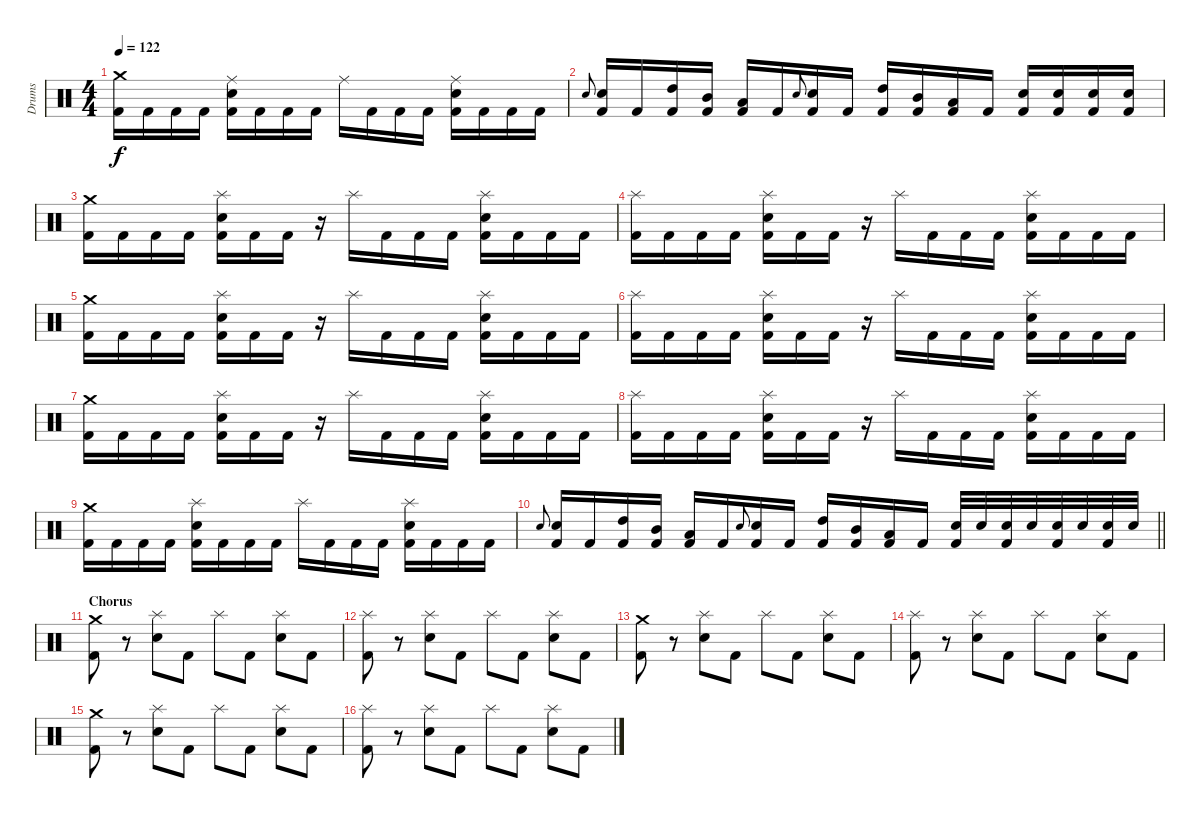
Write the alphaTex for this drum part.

\track ("Drums" "Drums") {instrument percussion}
\staff {score}
\articulation defaults
\ts (4 4)
\tempo 122
\clef neutral
\ks c
("Kick (hit) 2" "Crash medium (hit)").16{dy f} "Kick (hit) 2".16 "Kick (hit) 2".16 "Kick (hit) 2".16 ("Kick (hit) 2" "Snare (hit) 2" "Ride (middle)").16 "Kick (hit) 2".16 "Kick (hit) 2".16 "Kick (hit) 2".16 "Ride (middle)".16 "Kick (hit) 2".16 "Kick (hit) 2".16 "Kick (hit) 2".16 ("Kick (hit) 2" "Snare (hit) 2" "Ride (middle)").16 "Kick (hit) 2".16 "Kick (hit) 2".16 "Kick (hit) 2".16 |
"Snare (hit) 2".8{gr onbeat} ("Snare (hit) 2" "Kick (hit) 2").16 "Kick (hit) 2".16 ("Kick (hit) 2" "High Tom (hit)").16 ("Kick (hit) 2" "Mid Tom (hit)").16 ("Kick (hit) 2" "Low Tom (hit)").16 "Kick (hit) 2".16 "Snare (hit) 2".8{gr onbeat} ("Snare (hit) 2" "Kick (hit) 2").16 "Kick (hit) 2".16 ("Kick (hit) 2" "High Tom (hit)").16 ("Kick (hit) 2" "Mid Tom (hit)").16 ("Kick (hit) 2" "Low Tom (hit)").16 "Kick (hit) 2".16 ("Snare (hit) 2" "Kick (hit) 2").16 ("Snare (hit) 2" "Kick (hit) 2").16 ("Snare (hit) 2" "Kick (hit) 2").16 ("Snare (hit) 2" "Kick (hit) 2").16 |
("Kick (hit) 2" "Crash medium (hit)").16 "Kick (hit) 2".16 "Kick (hit) 2".16 "Kick (hit) 2".16 ("Kick (hit) 2" "Snare (hit) 2" "Splash (hit)").16 "Kick (hit) 2".16 "Kick (hit) 2".16 r.16 "Splash (hit)".16 "Kick (hit) 2".16 "Kick (hit) 2".16 "Kick (hit) 2".16 ("Kick (hit) 2" "Snare (hit) 2" "Splash (hit)").16 "Kick (hit) 2".16 "Kick (hit) 2".16 "Kick (hit) 2".16 |
("Kick (hit) 2" "Splash (hit)").16 "Kick (hit) 2".16 "Kick (hit) 2".16 "Kick (hit) 2".16 ("Kick (hit) 2" "Snare (hit) 2" "Splash (hit)").16 "Kick (hit) 2".16 "Kick (hit) 2".16 r.16 "Splash (hit)".16 "Kick (hit) 2".16 "Kick (hit) 2".16 "Kick (hit) 2".16 ("Kick (hit) 2" "Snare (hit) 2" "Splash (hit)").16 "Kick (hit) 2".16 "Kick (hit) 2".16 "Kick (hit) 2".16 |
("Kick (hit) 2" "Crash medium (hit)").16 "Kick (hit) 2".16 "Kick (hit) 2".16 "Kick (hit) 2".16 ("Kick (hit) 2" "Snare (hit) 2" "Splash (hit)").16 "Kick (hit) 2".16 "Kick (hit) 2".16 r.16 "Splash (hit)".16 "Kick (hit) 2".16 "Kick (hit) 2".16 "Kick (hit) 2".16 ("Kick (hit) 2" "Snare (hit) 2" "Splash (hit)").16 "Kick (hit) 2".16 "Kick (hit) 2".16 "Kick (hit) 2".16 |
("Kick (hit) 2" "Splash (hit)").16 "Kick (hit) 2".16 "Kick (hit) 2".16 "Kick (hit) 2".16 ("Kick (hit) 2" "Snare (hit) 2" "Splash (hit)").16 "Kick (hit) 2".16 "Kick (hit) 2".16 r.16 "Splash (hit)".16 "Kick (hit) 2".16 "Kick (hit) 2".16 "Kick (hit) 2".16 ("Kick (hit) 2" "Snare (hit) 2" "Splash (hit)").16 "Kick (hit) 2".16 "Kick (hit) 2".16 "Kick (hit) 2".16 |
("Kick (hit) 2" "Crash medium (hit)").16 "Kick (hit) 2".16 "Kick (hit) 2".16 "Kick (hit) 2".16 ("Kick (hit) 2" "Snare (hit) 2" "Splash (hit)").16 "Kick (hit) 2".16 "Kick (hit) 2".16 r.16 "Splash (hit)".16 "Kick (hit) 2".16 "Kick (hit) 2".16 "Kick (hit) 2".16 ("Kick (hit) 2" "Snare (hit) 2" "Splash (hit)").16 "Kick (hit) 2".16 "Kick (hit) 2".16 "Kick (hit) 2".16 |
("Kick (hit) 2" "Splash (hit)").16 "Kick (hit) 2".16 "Kick (hit) 2".16 "Kick (hit) 2".16 ("Kick (hit) 2" "Snare (hit) 2" "Splash (hit)").16 "Kick (hit) 2".16 "Kick (hit) 2".16 r.16 "Splash (hit)".16 "Kick (hit) 2".16 "Kick (hit) 2".16 "Kick (hit) 2".16 ("Kick (hit) 2" "Snare (hit) 2" "Splash (hit)").16 "Kick (hit) 2".16 "Kick (hit) 2".16 "Kick (hit) 2".16 |
("Kick (hit) 2" "Crash medium (hit)").16 "Kick (hit) 2".16 "Kick (hit) 2".16 "Kick (hit) 2".16 ("Kick (hit) 2" "Snare (hit) 2" "Splash (hit)").16 "Kick (hit) 2".16 "Kick (hit) 2".16 "Kick (hit) 2".16 "Splash (hit)".16 "Kick (hit) 2".16 "Kick (hit) 2".16 "Kick (hit) 2".16 ("Kick (hit) 2" "Snare (hit) 2" "Splash (hit)").16 "Kick (hit) 2".16 "Kick (hit) 2".16 "Kick (hit) 2".16 |
\barLineRight lightlight "Snare (hit) 2".8{gr onbeat}
("Snare (hit) 2" "Kick (hit) 2").16 "Kick (hit) 2".16 ("Kick (hit) 2" "High Tom (hit)").16 ("Kick (hit) 2" "Mid Tom (hit)").16 ("Kick (hit) 2" "Low Tom (hit)").16 "Kick (hit) 2".16 "Snare (hit) 2".8{gr onbeat} ("Snare (hit) 2" "Kick (hit) 2").16 "Kick (hit) 2".16 ("Kick (hit) 2" "High Tom (hit)").16 ("Kick (hit) 2" "Mid Tom (hit)").16 ("Kick (hit) 2" "Low Tom (hit)").16 "Kick (hit) 2".16 ("Snare (hit) 2" "Kick (hit) 2").32 "Snare (hit) 2".32 ("Snare (hit) 2" "Kick (hit) 2").32 "Snare (hit) 2".32 ("Snare (hit) 2" "Kick (hit) 2").32 "Snare (hit) 2".32 ("Snare (hit) 2" "Kick (hit) 2").32 "Snare (hit) 2".32 |
\section ("" "Chorus")
("Kick (hit) 2" "Crash medium (hit)").8 r.8 ("Snare (hit) 2" "Splash (hit)").8 "Kick (hit) 2".8 "Splash (hit)".8 "Kick (hit) 2".8 ("Snare (hit) 2" "Splash (hit)").8 "Kick (hit) 2".8 |
("Kick (hit) 2" "Splash (hit)").8 r.8 ("Snare (hit) 2" "Splash (hit)").8 "Kick (hit) 2".8 "Splash (hit)".8 "Kick (hit) 2".8 ("Snare (hit) 2" "Splash (hit)").8 "Kick (hit) 2".8 |
("Kick (hit) 2" "Crash medium (hit)").8 r.8 ("Snare (hit) 2" "Splash (hit)").8 "Kick (hit) 2".8 "Splash (hit)".8 "Kick (hit) 2".8 ("Snare (hit) 2" "Splash (hit)").8 "Kick (hit) 2".8 |
("Kick (hit) 2" "Splash (hit)").8 r.8 ("Snare (hit) 2" "Splash (hit)").8 "Kick (hit) 2".8 "Splash (hit)".8 "Kick (hit) 2".8 ("Snare (hit) 2" "Splash (hit)").8 "Kick (hit) 2".8 |
("Kick (hit) 2" "Crash medium (hit)").8 r.8 ("Snare (hit) 2" "Splash (hit)").8 "Kick (hit) 2".8 "Splash (hit)".8 "Kick (hit) 2".8 ("Snare (hit) 2" "Splash (hit)").8 "Kick (hit) 2".8 |
("Kick (hit) 2" "Splash (hit)").8 r.8 ("Snare (hit) 2" "Splash (hit)").8 "Kick (hit) 2".8 "Splash (hit)".8 "Kick (hit) 2".8 ("Snare (hit) 2" "Splash (hit)").8 "Kick (hit) 2".8
